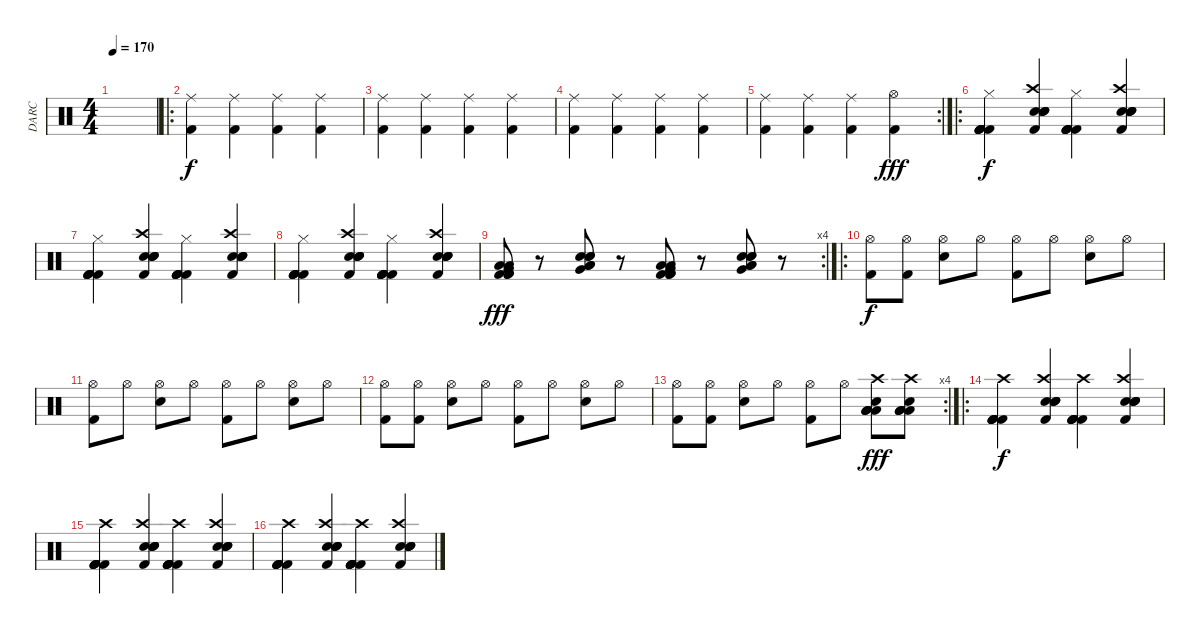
\track ("DARC" "DARC") {instrument percussion}
\staff {score}
\articulation defaults
\ts (4 4)
\tempo 170
\clef neutral
\ks c
|
\ro
("Ride (middle)" "Kick (hit) 2").4 ("Ride (middle)" "Kick (hit) 2").4 ("Ride (middle)" "Kick (hit) 2").4 ("Ride (middle)" "Kick (hit) 2").4 |
("Ride (middle)" "Kick (hit) 2").4 ("Ride (middle)" "Kick (hit) 2").4 ("Ride (middle)" "Kick (hit) 2").4 ("Ride (middle)" "Kick (hit) 2").4 |
("Ride (middle)" "Kick (hit) 2").4 ("Ride (middle)" "Kick (hit) 2").4 ("Ride (middle)" "Kick (hit) 2").4 ("Ride (middle)" "Kick (hit) 2").4 |
\rc 2
("Ride (middle)" "Kick (hit) 2").4 ("Ride (middle)" "Kick (hit) 2").4 ("Ride (middle)" "Kick (hit) 2").4 ("Hi-Hat (open)" "Kick (hit) 2").4{dy fff} |
\ro
("Hi-Hat (closed)" "Kick (hit) 2" "Kick (hit) 2" "Kick (hit) 2" "Kick (hit) 2" "Kick (hit) 2").4{dy f} ("Crash high (hit)" "Kick (hit) 2" "Electric Snare (hit)" "Electric Snare (hit)" "Electric Snare (hit)" "Electric Snare (hit)").4 ("Hi-Hat (closed)" "Kick (hit) 2" "Kick (hit) 2" "Kick (hit) 2" "Kick (hit) 2" "Kick (hit) 2").4 ("Crash high (hit)" "Kick (hit) 2" "Electric Snare (hit)" "Electric Snare (hit)" "Electric Snare (hit)" "Electric Snare (hit)").4 |
("Hi-Hat (closed)" "Kick (hit) 2" "Kick (hit) 2" "Kick (hit) 2" "Kick (hit) 2" "Kick (hit) 2").4 ("Crash high (hit)" "Kick (hit) 2" "Electric Snare (hit)" "Electric Snare (hit)" "Electric Snare (hit)" "Electric Snare (hit)").4 ("Hi-Hat (closed)" "Kick (hit) 2" "Kick (hit) 2" "Kick (hit) 2" "Kick (hit) 2" "Kick (hit) 2").4 ("Crash high (hit)" "Kick (hit) 2" "Electric Snare (hit)" "Electric Snare (hit)" "Electric Snare (hit)" "Electric Snare (hit)").4 |
("Hi-Hat (closed)" "Kick (hit) 2" "Kick (hit) 2" "Kick (hit) 2" "Kick (hit) 2" "Kick (hit) 2").4 ("Crash high (hit)" "Kick (hit) 2" "Electric Snare (hit)" "Electric Snare (hit)" "Electric Snare (hit)" "Electric Snare (hit)").4 ("Hi-Hat (closed)" "Kick (hit) 2" "Kick (hit) 2" "Kick (hit) 2" "Kick (hit) 2" "Kick (hit) 2").4 ("Crash high (hit)" "Kick (hit) 2" "Electric Snare (hit)" "Electric Snare (hit)" "Electric Snare (hit)" "Electric Snare (hit)").4 |
\rc 4
("Low Floor Tom (hit)" "Low Floor Tom (hit)" "Very Low Tom (hit)" "Kick (hit) 2" "Kick (hit) 2" "Kick (hit) 2").8{dy fff} r.8 ("Low Floor Tom (hit)" "Low Floor Tom (hit)" "Very Low Tom (hit)" "Electric Snare (hit)" "Electric Snare (hit)" "Electric Snare (hit)").8 r.8 ("Low Floor Tom (hit)" "Low Floor Tom (hit)" "Very Low Tom (hit)" "Kick (hit) 2" "Kick (hit) 2" "Kick (hit) 2").8 r.8 ("Low Floor Tom (hit)" "Low Floor Tom (hit)" "Very Low Tom (hit)" "Electric Snare (hit)" "Electric Snare (hit)" "Electric Snare (hit)").8 r.8 |
\ro
("Hi-Hat (open)" "Kick (hit) 2").8{dy f} ("Hi-Hat (open)" "Kick (hit) 2").8 ("Hi-Hat (open)" "Electric Snare (hit)").8 "Hi-Hat (open)".8 ("Hi-Hat (open)" "Kick (hit) 2").8 "Hi-Hat (open)".8 ("Hi-Hat (open)" "Electric Snare (hit)").8 "Hi-Hat (open)".8 |
("Hi-Hat (open)" "Kick (hit) 2").8 "Hi-Hat (open)".8 ("Hi-Hat (open)" "Electric Snare (hit)").8 "Hi-Hat (open)".8 ("Hi-Hat (open)" "Kick (hit) 2").8 "Hi-Hat (open)".8 ("Hi-Hat (open)" "Electric Snare (hit)").8 "Hi-Hat (open)".8 |
("Hi-Hat (open)" "Kick (hit) 2").8 ("Hi-Hat (open)" "Kick (hit) 2").8 ("Hi-Hat (open)" "Electric Snare (hit)").8 "Hi-Hat (open)".8 ("Hi-Hat (open)" "Kick (hit) 2").8 "Hi-Hat (open)".8 ("Hi-Hat (open)" "Electric Snare (hit)").8 "Hi-Hat (open)".8 |
\rc 4
("Hi-Hat (open)" "Kick (hit) 2").8 ("Hi-Hat (open)" "Kick (hit) 2").8 ("Hi-Hat (open)" "Electric Snare (hit)").8 "Hi-Hat (open)".8 ("Hi-Hat (open)" "Kick (hit) 2").8 "Hi-Hat (open)".8 ("Low Floor Tom (hit)" "Low Floor Tom (hit)" "Low Floor Tom (hit)" "Low Floor Tom (hit)" "Crash high (hit)" "Electric Snare (hit)").8{dy fff} ("Low Floor Tom (hit)" "Low Floor Tom (hit)" "Low Floor Tom (hit)" "Low Floor Tom (hit)" "Crash high (hit)" "Electric Snare (hit)").8 |
\ro
("Crash high (hit)" "Kick (hit) 2" "Kick (hit) 2" "Kick (hit) 2" "Kick (hit) 2" "Kick (hit) 2").4{dy f} ("Crash high (hit)" "Kick (hit) 2" "Electric Snare (hit)" "Electric Snare (hit)" "Electric Snare (hit)" "Electric Snare (hit)").4 ("Crash high (hit)" "Kick (hit) 2" "Kick (hit) 2" "Kick (hit) 2" "Kick (hit) 2" "Kick (hit) 2").4 ("Crash high (hit)" "Kick (hit) 2" "Electric Snare (hit)" "Electric Snare (hit)" "Electric Snare (hit)" "Electric Snare (hit)").4 |
("Crash high (hit)" "Kick (hit) 2" "Kick (hit) 2" "Kick (hit) 2" "Kick (hit) 2" "Kick (hit) 2").4 ("Crash high (hit)" "Kick (hit) 2" "Electric Snare (hit)" "Electric Snare (hit)" "Electric Snare (hit)" "Electric Snare (hit)").4 ("Crash high (hit)" "Kick (hit) 2" "Kick (hit) 2" "Kick (hit) 2" "Kick (hit) 2" "Kick (hit) 2").4 ("Crash high (hit)" "Kick (hit) 2" "Electric Snare (hit)" "Electric Snare (hit)" "Electric Snare (hit)" "Electric Snare (hit)").4 |
("Crash high (hit)" "Kick (hit) 2" "Kick (hit) 2" "Kick (hit) 2" "Kick (hit) 2" "Kick (hit) 2").4 ("Crash high (hit)" "Kick (hit) 2" "Electric Snare (hit)" "Electric Snare (hit)" "Electric Snare (hit)" "Electric Snare (hit)").4 ("Crash high (hit)" "Kick (hit) 2" "Kick (hit) 2" "Kick (hit) 2" "Kick (hit) 2" "Kick (hit) 2").4 ("Crash high (hit)" "Kick (hit) 2" "Electric Snare (hit)" "Electric Snare (hit)" "Electric Snare (hit)" "Electric Snare (hit)").4
